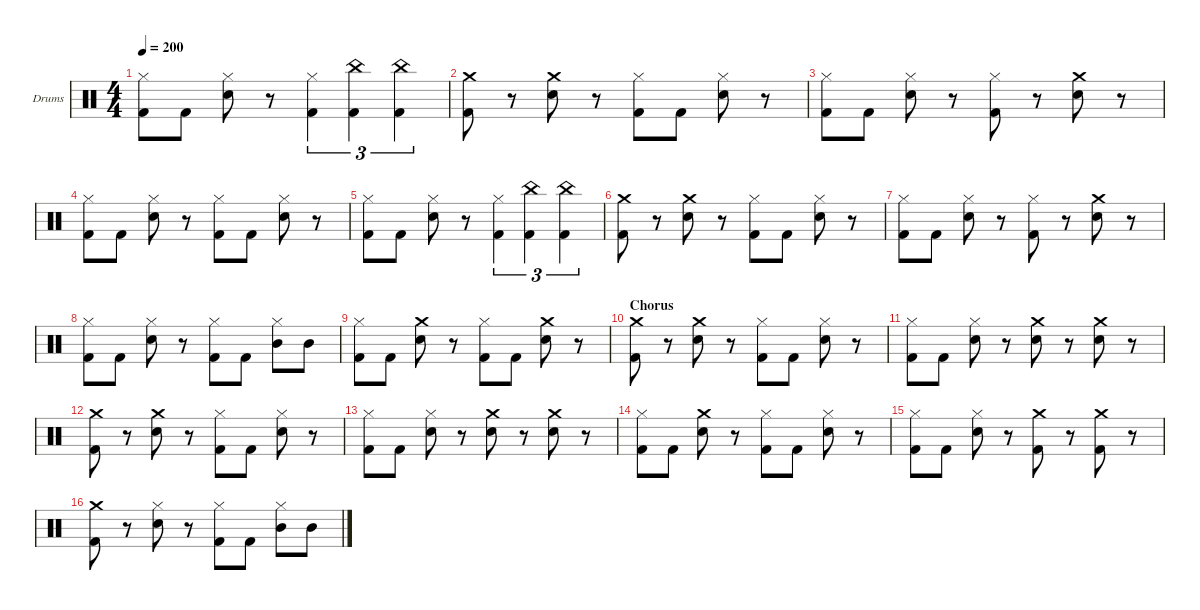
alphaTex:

\hideDynamics
\bracketExtendMode nobrackets
\firstSystemTrackNameOrientation horizontal
\otherSystemsTrackNameOrientation horizontal
\track ("Drumkit" "Drums") {instrument percussion}
\staff {score}
\articulation defaults
\ts (4 4)
\tempo 200
\clef neutral
\ks c
("Kick (hit) 2" "Hi-Hat (closed)").8{dy f} "Kick (hit) 2".8 ("Snare (hit) 2" "Hi-Hat (closed)").8 r.8 ("Hi-Hat (closed)" "Kick (hit) 2").4{tu (3 2)} ("China (hit)" "Kick (hit) 2").4{tu (3 2)} ("China (hit)" "Kick (hit) 2").4{tu (3 2)} |
("Kick (hit) 2" "Crash medium (hit)").8 r.8 ("Crash medium (hit)" "Snare (hit) 2").8 r.8 ("Hi-Hat (closed)" "Kick (hit) 2").8 "Kick (hit) 2".8 ("Hi-Hat (closed)" "Snare (hit) 2").8 r.8 |
("Kick (hit) 2" "Hi-Hat (closed)").8 "Kick (hit) 2".8 ("Snare (hit) 2" "Hi-Hat (closed)").8 r.8 ("Hi-Hat (closed)" "Kick (hit) 2").8 r.8 ("Crash medium (hit)" "Snare (hit) 2").8 r.8 |
("Hi-Hat (closed)" "Kick (hit) 2").8 "Kick (hit) 2".8 ("Snare (hit) 2" "Hi-Hat (closed)").8 r.8 ("Hi-Hat (closed)" "Kick (hit) 2").8 "Kick (hit) 2".8 ("Snare (hit) 2" "Hi-Hat (closed)").8 r.8 |
("Kick (hit) 2" "Hi-Hat (closed)").8 "Kick (hit) 2".8 ("Snare (hit) 2" "Hi-Hat (closed)").8 r.8 ("Hi-Hat (closed)" "Kick (hit) 2").4{tu (3 2)} ("China (hit)" "Kick (hit) 2").4{tu (3 2)} ("China (hit)" "Kick (hit) 2").4{tu (3 2)} |
("Kick (hit) 2" "Crash medium (hit)").8 r.8 ("Crash medium (hit)" "Snare (hit) 2").8 r.8 ("Hi-Hat (closed)" "Kick (hit) 2").8 "Kick (hit) 2".8 ("Hi-Hat (closed)" "Snare (hit) 2").8 r.8 |
("Kick (hit) 2" "Hi-Hat (closed)").8 "Kick (hit) 2".8 ("Snare (hit) 2" "Hi-Hat (closed)").8 r.8 ("Hi-Hat (closed)" "Kick (hit) 2").8 r.8 ("Crash medium (hit)" "Snare (hit) 2").8 r.8 |
("Hi-Hat (closed)" "Kick (hit) 2").8 "Kick (hit) 2".8 ("Snare (hit) 2" "Hi-Hat (closed)").8 r.8 ("Hi-Hat (closed)" "Kick (hit) 2").8 "Kick (hit) 2".8 ("Mid Tom (hit)" "Hi-Hat (closed)").8 "Mid Tom (hit)".8 |
("Kick (hit) 2" "Hi-Hat (closed)").8 "Kick (hit) 2".8 ("Crash medium (hit)" "Snare (hit) 2").8 r.8 ("Kick (hit) 2" "Hi-Hat (closed)").8 "Kick (hit) 2".8 ("Crash medium (hit)" "Snare (hit) 2").8 r.8 |
\section ("" "Chorus")
("Kick (hit) 2" "Crash medium (hit)").8 r.8 ("Crash medium (hit)" "Snare (hit) 2").8 r.8 ("Hi-Hat (closed)" "Kick (hit) 2").8 "Kick (hit) 2".8 ("Hi-Hat (closed)" "Snare (hit) 2").8 r.8 |
("Kick (hit) 2" "Hi-Hat (closed)").8 "Kick (hit) 2".8 ("Snare (hit) 2" "Hi-Hat (closed)").8 r.8 ("Crash medium (hit)" "Snare (hit) 2").8 r.8 ("Crash medium (hit)" "Snare (hit) 2").8 r.8 |
("Kick (hit) 2" "Crash medium (hit)").8 r.8 ("Crash medium (hit)" "Snare (hit) 2").8 r.8 ("Hi-Hat (closed)" "Kick (hit) 2").8 "Kick (hit) 2".8 ("Hi-Hat (closed)" "Snare (hit) 2").8 r.8 |
("Kick (hit) 2" "Hi-Hat (closed)").8 "Kick (hit) 2".8 ("Snare (hit) 2" "Hi-Hat (closed)").8 r.8 ("Snare (hit) 2" "Crash medium (hit)").8 r.8 ("Snare (hit) 2" "Crash medium (hit)").8 r.8 |
("Kick (hit) 2" "Hi-Hat (closed)").8 "Kick (hit) 2".8 ("Crash medium (hit)" "Snare (hit) 2").8 r.8 ("Hi-Hat (closed)" "Kick (hit) 2").8 "Kick (hit) 2".8 ("Hi-Hat (closed)" "Snare (hit) 2").8 r.8 |
("Kick (hit) 2" "Hi-Hat (closed)").8 "Kick (hit) 2".8 ("Snare (hit) 2" "Hi-Hat (closed)").8 r.8 ("Crash medium (hit)" "Kick (hit) 2").8 r.8 ("Crash medium (hit)" "Kick (hit) 2").8 r.8 |
("Kick (hit) 2" "Crash medium (hit)").8 r.8 ("Hi-Hat (closed)" "Snare (hit) 2").8 r.8 ("Hi-Hat (closed)" "Kick (hit) 2").8 "Kick (hit) 2".8 ("Mid Tom (hit)" "Hi-Hat (closed)").8 "Mid Tom (hit)".8
